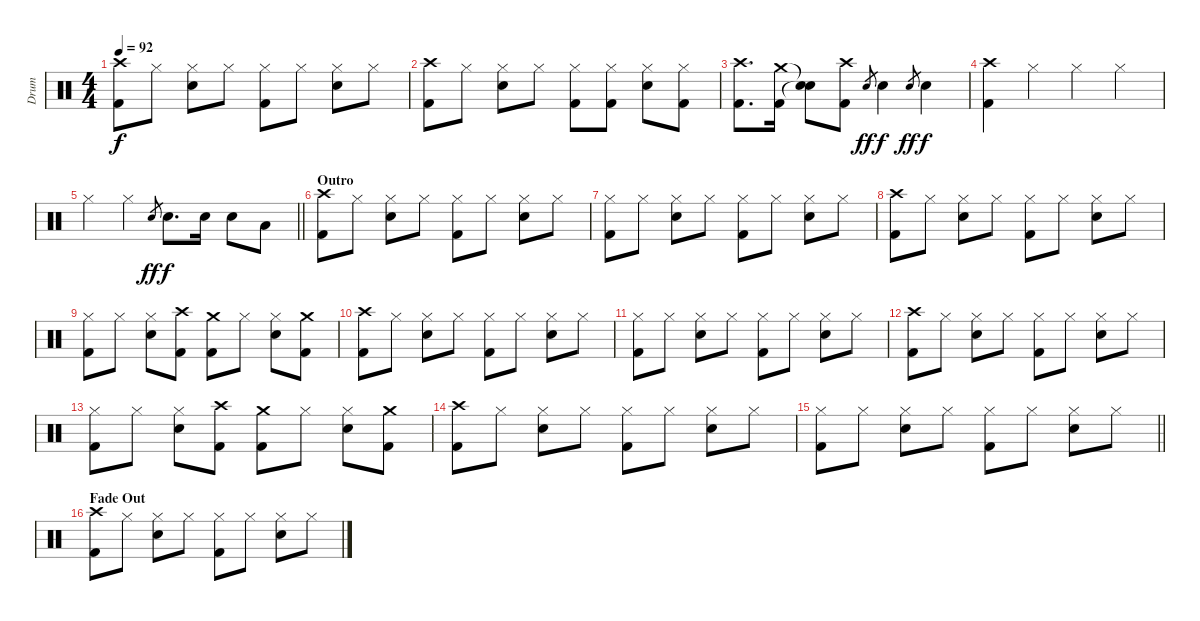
\track ("Drum" "Drum") {instrument percussion}
\staff {score}
\articulation defaults
\ts (4 4)
\tempo 92
\clef neutral
\ks c
("Crash high (hit)" "Kick (hit) 2").8{dy f} "Hi-Hat (closed)".8 ("Hi-Hat (closed)" "Snare (hit) 2").8 "Hi-Hat (closed)".8 ("Hi-Hat (closed)" "Kick (hit) 2").8 "Hi-Hat (closed)".8 ("Hi-Hat (closed)" "Snare (hit) 2").8 "Hi-Hat (closed)".8 |
("Crash high (hit)" "Kick (hit) 2").8 "Hi-Hat (closed)".8 ("Hi-Hat (closed)" "Snare (hit) 2").8 "Hi-Hat (closed)".8 ("Hi-Hat (closed)" "Kick (hit) 2").8 ("Hi-Hat (closed)" "Kick (hit) 2").8 ("Hi-Hat (closed)" "Snare (hit) 2").8 ("Hi-Hat (closed)" "Kick (hit) 2").8 |
("Crash high (hit)" "Kick (hit) 2").8{d} ("Crash medium (hit)" "Kick (hit) 2").16 ("Snare (hit)"{t} "Snare (hit)"{t}).8 ("Crash high (hit)" "Kick (hit) 2").8 "Snare (hit) 2".8{gr dy ff} "Snare (hit) 2".4{dy f} "Snare (hit) 2".8{gr dy ff} "Snare (hit) 2".4{dy f} |
("Crash high (hit)" "Kick (hit) 2").4 "Hi-Hat (closed)".4 "Hi-Hat (closed)".4 "Hi-Hat (closed)".4 |
\barLineRight lightlight "Hi-Hat (closed)".4 "Hi-Hat (closed)".4 "Snare (hit) 2".8{gr dy ff} "Snare (hit) 2".8{d dy f} "Snare (hit) 2".16 "Snare (hit) 2".8 "Low Tom (hit)".8
|
\section ("" "Outro")
("Crash high (hit)" "Kick (hit) 2").8 "Hi-Hat (closed)".8 ("Hi-Hat (closed)" "Snare (hit) 2").8 "Hi-Hat (closed)".8 ("Hi-Hat (closed)" "Kick (hit) 2").8 "Hi-Hat (closed)".8 ("Hi-Hat (closed)" "Snare (hit) 2").8 "Hi-Hat (closed)".8 |
("Hi-Hat (closed)" "Kick (hit) 2").8 "Hi-Hat (closed)".8 ("Hi-Hat (closed)" "Snare (hit) 2").8 "Hi-Hat (closed)".8 ("Hi-Hat (closed)" "Kick (hit) 2").8 "Hi-Hat (closed)".8 ("Hi-Hat (closed)" "Snare (hit) 2").8 "Hi-Hat (closed)".8 |
("Crash high (hit)" "Kick (hit) 2").8 "Hi-Hat (closed)".8 ("Hi-Hat (closed)" "Snare (hit) 2").8 "Hi-Hat (closed)".8 ("Hi-Hat (closed)" "Kick (hit) 2").8 "Hi-Hat (closed)".8 ("Hi-Hat (closed)" "Snare (hit) 2").8 "Hi-Hat (closed)".8 |
("Hi-Hat (closed)" "Kick (hit) 2").8 "Hi-Hat (closed)".8 ("Hi-Hat (closed)" "Snare (hit) 2").8 ("Crash high (hit)" "Kick (hit) 2").8 ("Crash medium (hit)" "Kick (hit) 2").8 "Hi-Hat (closed)".8 ("Hi-Hat (closed)" "Snare (hit) 2").8 ("Crash medium (hit)" "Kick (hit) 2").8 |
("Crash high (hit)" "Kick (hit) 2").8 "Hi-Hat (closed)".8 ("Hi-Hat (closed)" "Snare (hit) 2").8 "Hi-Hat (closed)".8 ("Hi-Hat (closed)" "Kick (hit) 2").8 "Hi-Hat (closed)".8 ("Hi-Hat (closed)" "Snare (hit) 2").8 "Hi-Hat (closed)".8 |
("Hi-Hat (closed)" "Kick (hit) 2").8 "Hi-Hat (closed)".8 ("Hi-Hat (closed)" "Snare (hit) 2").8 "Hi-Hat (closed)".8 ("Hi-Hat (closed)" "Kick (hit) 2").8 "Hi-Hat (closed)".8 ("Hi-Hat (closed)" "Snare (hit) 2").8 "Hi-Hat (closed)".8 |
("Crash high (hit)" "Kick (hit) 2").8 "Hi-Hat (closed)".8 ("Hi-Hat (closed)" "Snare (hit) 2").8 "Hi-Hat (closed)".8 ("Hi-Hat (closed)" "Kick (hit) 2").8 "Hi-Hat (closed)".8 ("Hi-Hat (closed)" "Snare (hit) 2").8 "Hi-Hat (closed)".8 |
("Hi-Hat (closed)" "Kick (hit) 2").8 "Hi-Hat (closed)".8 ("Hi-Hat (closed)" "Snare (hit) 2").8 ("Crash high (hit)" "Kick (hit) 2").8 ("Crash medium (hit)" "Kick (hit) 2").8 "Hi-Hat (closed)".8 ("Hi-Hat (closed)" "Snare (hit) 2").8 ("Crash medium (hit)" "Kick (hit) 2").8 |
("Crash high (hit)" "Kick (hit) 2").8 "Hi-Hat (closed)".8 ("Hi-Hat (closed)" "Snare (hit) 2").8 "Hi-Hat (closed)".8 ("Hi-Hat (closed)" "Kick (hit) 2").8 "Hi-Hat (closed)".8 ("Hi-Hat (closed)" "Snare (hit) 2").8 "Hi-Hat (closed)".8 |
\barLineRight lightlight
("Hi-Hat (closed)" "Kick (hit) 2").8 "Hi-Hat (closed)".8 ("Hi-Hat (closed)" "Snare (hit) 2").8 "Hi-Hat (closed)".8 ("Hi-Hat (closed)" "Kick (hit) 2").8 "Hi-Hat (closed)".8 ("Hi-Hat (closed)" "Snare (hit) 2").8 "Hi-Hat (closed)".8 |
\section ("" "Fade Out")
("Crash high (hit)" "Kick (hit) 2").8{volume 8} "Hi-Hat (closed)".8 ("Hi-Hat (closed)" "Snare (hit) 2").8 "Hi-Hat (closed)".8 ("Hi-Hat (closed)" "Kick (hit) 2").8 "Hi-Hat (closed)".8 ("Hi-Hat (closed)" "Snare (hit) 2").8 "Hi-Hat (closed)".8
